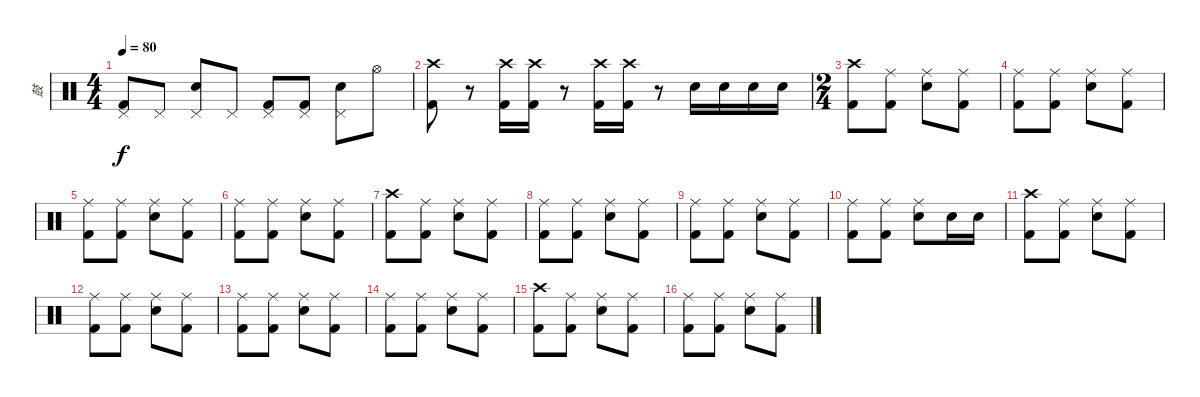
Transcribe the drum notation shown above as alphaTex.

\track ("鼓" "鼓") {instrument percussion}
\staff {score}
\articulation defaults
\ts (4 4)
\tempo 80
\clef neutral
\ks c
("Pedal Hi-Hat (hit)" "Kick (hit) 2").8{dy f} "Pedal Hi-Hat (hit)".8 ("Pedal Hi-Hat (hit)" "Electric Snare (hit)").8 "Pedal Hi-Hat (hit)".8 ("Pedal Hi-Hat (hit)" "Kick (hit) 2").8 ("Pedal Hi-Hat (hit)" "Kick (hit) 2").8 ("Pedal Hi-Hat (hit)" "Electric Snare (hit)").8 "Hi-Hat (open)".8 |
("Crash high (hit)" "Kick (hit) 2").8 r.8 ("Crash high (hit)" "Kick (hit) 2").16 ("Crash high (hit)" "Kick (hit) 2").16 r.8 ("Crash high (hit)" "Kick (hit) 2").16 ("Crash high (hit)" "Kick (hit) 2").16 r.8 "Electric Snare (hit)".16 "Electric Snare (hit)".16 "Electric Snare (hit)".16 "Electric Snare (hit)".16 |
\ts (2 4)
("Crash high (hit)" "Kick (hit) 2").8 ("Ride (middle)" "Kick (hit) 2").8 ("Ride (middle)" "Electric Snare (hit)").8 ("Ride (middle)" "Kick (hit) 2").8 |
("Ride (middle)" "Kick (hit) 2").8 ("Ride (middle)" "Kick (hit) 2").8 ("Ride (middle)" "Electric Snare (hit)").8 ("Ride (middle)" "Kick (hit) 2").8 |
("Ride (middle)" "Kick (hit) 2").8 ("Ride (middle)" "Kick (hit) 2").8 ("Ride (middle)" "Electric Snare (hit)").8 ("Ride (middle)" "Kick (hit) 2").8 |
("Ride (middle)" "Kick (hit) 2").8 ("Ride (middle)" "Kick (hit) 2").8 ("Ride (middle)" "Electric Snare (hit)").8 ("Ride (middle)" "Kick (hit) 2").8 |
("Crash high (hit)" "Kick (hit) 2").8 ("Ride (middle)" "Kick (hit) 2").8 ("Ride (middle)" "Electric Snare (hit)").8 ("Ride (middle)" "Kick (hit) 2").8 |
("Ride (middle)" "Kick (hit) 2").8 ("Ride (middle)" "Kick (hit) 2").8 ("Ride (middle)" "Electric Snare (hit)").8 ("Ride (middle)" "Kick (hit) 2").8 |
("Ride (middle)" "Kick (hit) 2").8 ("Ride (middle)" "Kick (hit) 2").8 ("Ride (middle)" "Electric Snare (hit)").8 ("Ride (middle)" "Kick (hit) 2").8 |
("Ride (middle)" "Kick (hit) 2").8 ("Ride (middle)" "Kick (hit) 2").8 ("Ride (middle)" "Electric Snare (hit)").8 "Electric Snare (hit)".16 "Electric Snare (hit)".16 |
("Crash high (hit)" "Kick (hit) 2").8 ("Ride (middle)" "Kick (hit) 2").8 ("Ride (middle)" "Electric Snare (hit)").8 ("Ride (middle)" "Kick (hit) 2").8 |
("Ride (middle)" "Kick (hit) 2").8 ("Ride (middle)" "Kick (hit) 2").8 ("Ride (middle)" "Electric Snare (hit)").8 ("Ride (middle)" "Kick (hit) 2").8 |
("Ride (middle)" "Kick (hit) 2").8 ("Ride (middle)" "Kick (hit) 2").8 ("Ride (middle)" "Electric Snare (hit)").8 ("Ride (middle)" "Kick (hit) 2").8 |
("Ride (middle)" "Kick (hit) 2").8 ("Ride (middle)" "Kick (hit) 2").8 ("Ride (middle)" "Electric Snare (hit)").8 ("Ride (middle)" "Kick (hit) 2").8 |
("Crash high (hit)" "Kick (hit) 2").8 ("Ride (middle)" "Kick (hit) 2").8 ("Ride (middle)" "Electric Snare (hit)").8 ("Ride (middle)" "Kick (hit) 2").8 |
("Ride (middle)" "Kick (hit) 2").8 ("Ride (middle)" "Kick (hit) 2").8 ("Ride (middle)" "Electric Snare (hit)").8 ("Ride (middle)" "Kick (hit) 2").8
